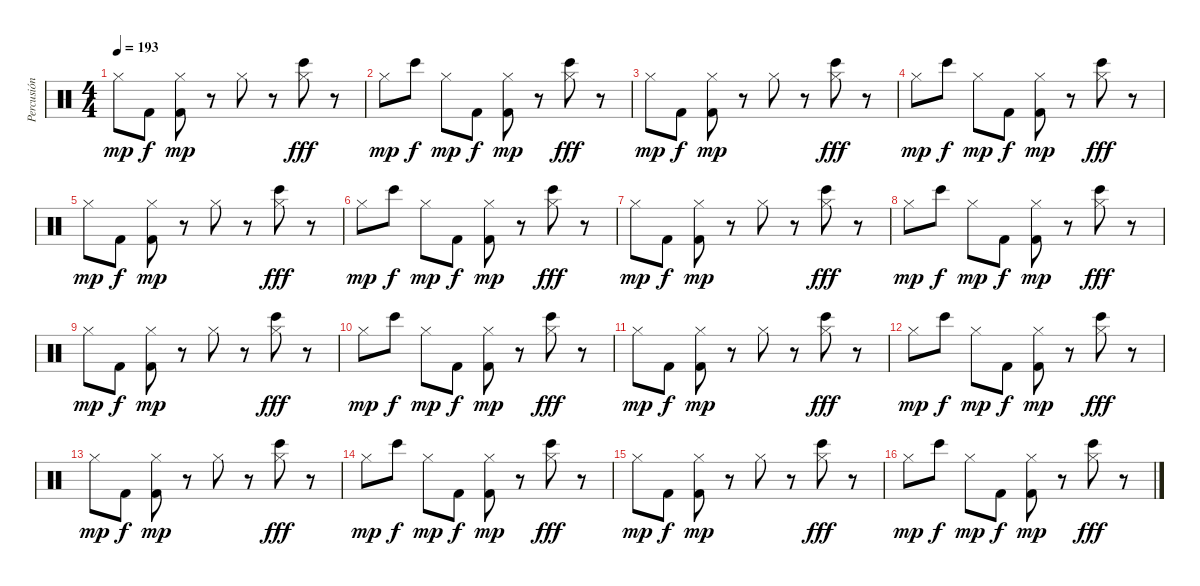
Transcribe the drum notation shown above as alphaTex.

\track ("Percusión" "Percusión") {instrument percussion}
\staff {score}
\articulation defaults
\ts (4 4)
\tempo 193
\clef neutral
\ks c "Hi-Hat (closed)".8{dy mp} "Kick (hit) 2".8{dy f}
("Hi-Hat (closed)" "Kick (hit) 2").8{dy mp} r.8 "Hi-Hat (closed)".8 r.8 ("Hi-Hat (closed)" "Bongo High (hit)").8{dy fff} r.8 |
"Hi-Hat (closed)".8{dy mp} "Bongo High (hit)".8{dy f} "Hi-Hat (closed)".8{dy mp} "Kick (hit) 2".8{dy f} ("Hi-Hat (closed)" "Kick (hit) 2").8{dy mp} r.8 ("Hi-Hat (closed)" "Bongo High (hit)").8{dy fff} r.8 |
"Hi-Hat (closed)".8{dy mp} "Kick (hit) 2".8{dy f} ("Hi-Hat (closed)" "Kick (hit) 2").8{dy mp} r.8 "Hi-Hat (closed)".8 r.8 ("Hi-Hat (closed)" "Bongo High (hit)").8{dy fff} r.8 |
"Hi-Hat (closed)".8{dy mp} "Bongo High (hit)".8{dy f} "Hi-Hat (closed)".8{dy mp} "Kick (hit) 2".8{dy f} ("Hi-Hat (closed)" "Kick (hit) 2").8{dy mp} r.8 ("Hi-Hat (closed)" "Bongo High (hit)").8{dy fff} r.8 |
"Hi-Hat (closed)".8{dy mp} "Kick (hit) 2".8{dy f} ("Hi-Hat (closed)" "Kick (hit) 2").8{dy mp} r.8 "Hi-Hat (closed)".8 r.8 ("Hi-Hat (closed)" "Bongo High (hit)").8{dy fff} r.8 |
"Hi-Hat (closed)".8{dy mp} "Bongo High (hit)".8{dy f} "Hi-Hat (closed)".8{dy mp} "Kick (hit) 2".8{dy f} ("Hi-Hat (closed)" "Kick (hit) 2").8{dy mp} r.8 ("Hi-Hat (closed)" "Bongo High (hit)").8{dy fff} r.8 |
"Hi-Hat (closed)".8{dy mp} "Kick (hit) 2".8{dy f} ("Hi-Hat (closed)" "Kick (hit) 2").8{dy mp} r.8 "Hi-Hat (closed)".8 r.8 ("Hi-Hat (closed)" "Bongo High (hit)").8{dy fff} r.8 |
"Hi-Hat (closed)".8{dy mp} "Bongo High (hit)".8{dy f} "Hi-Hat (closed)".8{dy mp} "Kick (hit) 2".8{dy f} ("Hi-Hat (closed)" "Kick (hit) 2").8{dy mp} r.8 ("Hi-Hat (closed)" "Bongo High (hit)").8{dy fff} r.8 |
"Hi-Hat (closed)".8{dy mp} "Kick (hit) 2".8{dy f} ("Hi-Hat (closed)" "Kick (hit) 2").8{dy mp} r.8 "Hi-Hat (closed)".8 r.8 ("Hi-Hat (closed)" "Bongo High (hit)").8{dy fff} r.8 |
"Hi-Hat (closed)".8{dy mp} "Bongo High (hit)".8{dy f} "Hi-Hat (closed)".8{dy mp} "Kick (hit) 2".8{dy f} ("Hi-Hat (closed)" "Kick (hit) 2").8{dy mp} r.8 ("Hi-Hat (closed)" "Bongo High (hit)").8{dy fff} r.8 |
"Hi-Hat (closed)".8{dy mp} "Kick (hit) 2".8{dy f} ("Hi-Hat (closed)" "Kick (hit) 2").8{dy mp} r.8 "Hi-Hat (closed)".8 r.8 ("Hi-Hat (closed)" "Bongo High (hit)").8{dy fff} r.8 |
"Hi-Hat (closed)".8{dy mp} "Bongo High (hit)".8{dy f} "Hi-Hat (closed)".8{dy mp} "Kick (hit) 2".8{dy f} ("Hi-Hat (closed)" "Kick (hit) 2").8{dy mp} r.8 ("Hi-Hat (closed)" "Bongo High (hit)").8{dy fff} r.8 |
"Hi-Hat (closed)".8{dy mp} "Kick (hit) 2".8{dy f} ("Hi-Hat (closed)" "Kick (hit) 2").8{dy mp} r.8 "Hi-Hat (closed)".8 r.8 ("Hi-Hat (closed)" "Bongo High (hit)").8{dy fff} r.8 |
"Hi-Hat (closed)".8{dy mp} "Bongo High (hit)".8{dy f} "Hi-Hat (closed)".8{dy mp} "Kick (hit) 2".8{dy f} ("Hi-Hat (closed)" "Kick (hit) 2").8{dy mp} r.8 ("Hi-Hat (closed)" "Bongo High (hit)").8{dy fff} r.8 |
"Hi-Hat (closed)".8{dy mp} "Kick (hit) 2".8{dy f} ("Hi-Hat (closed)" "Kick (hit) 2").8{dy mp} r.8 "Hi-Hat (closed)".8 r.8 ("Hi-Hat (closed)" "Bongo High (hit)").8{dy fff} r.8 |
"Hi-Hat (closed)".8{dy mp} "Bongo High (hit)".8{dy f} "Hi-Hat (closed)".8{dy mp} "Kick (hit) 2".8{dy f} ("Hi-Hat (closed)" "Kick (hit) 2").8{dy mp} r.8 ("Hi-Hat (closed)" "Bongo High (hit)").8{dy fff} r.8
